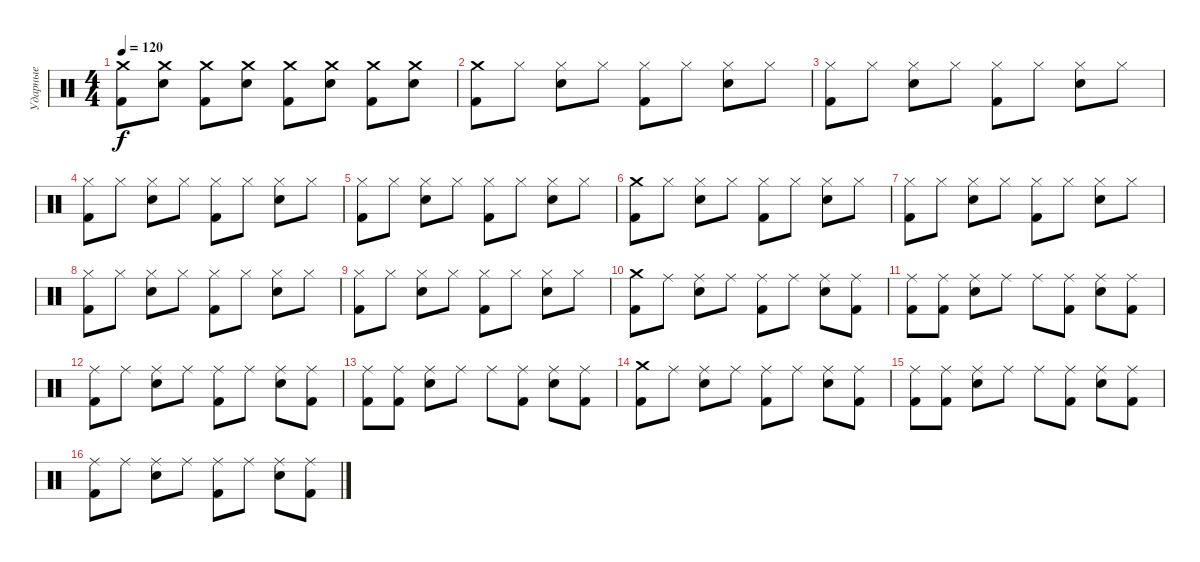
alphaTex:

\track ("Ударные" "Ударные") {instrument percussion}
\staff {score}
\articulation defaults
\ts (4 4)
\tempo 120
\clef neutral
\ks c
("Crash medium (hit)" "Kick (hit) 2").8{dy f} ("Crash medium (hit)" "Electric Snare (hit)").8 ("Crash medium (hit)" "Kick (hit) 2").8 ("Crash medium (hit)" "Electric Snare (hit)").8 ("Crash medium (hit)" "Kick (hit) 2").8 ("Crash medium (hit)" "Electric Snare (hit)").8 ("Crash medium (hit)" "Kick (hit) 2").8 ("Crash medium (hit)" "Electric Snare (hit)").8 |
("Crash medium (hit)" "Kick (hit) 2").8 "Hi-Hat (closed)".8 ("Hi-Hat (closed)" "Electric Snare (hit)").8 "Hi-Hat (closed)".8 ("Hi-Hat (closed)" "Kick (hit) 2").8 "Hi-Hat (closed)".8 ("Hi-Hat (closed)" "Electric Snare (hit)").8 "Hi-Hat (closed)".8 |
("Hi-Hat (closed)" "Kick (hit) 2").8 "Hi-Hat (closed)".8 ("Hi-Hat (closed)" "Electric Snare (hit)").8 "Hi-Hat (closed)".8 ("Hi-Hat (closed)" "Kick (hit) 2").8 "Hi-Hat (closed)".8 ("Hi-Hat (closed)" "Electric Snare (hit)").8 "Hi-Hat (closed)".8 |
("Hi-Hat (closed)" "Kick (hit) 2").8 "Hi-Hat (closed)".8 ("Hi-Hat (closed)" "Electric Snare (hit)").8 "Hi-Hat (closed)".8 ("Hi-Hat (closed)" "Kick (hit) 2").8 "Hi-Hat (closed)".8 ("Hi-Hat (closed)" "Electric Snare (hit)").8 "Hi-Hat (closed)".8 |
("Hi-Hat (closed)" "Kick (hit) 2").8 "Hi-Hat (closed)".8 ("Hi-Hat (closed)" "Electric Snare (hit)").8 "Hi-Hat (closed)".8 ("Hi-Hat (closed)" "Kick (hit) 2").8 "Hi-Hat (closed)".8 ("Hi-Hat (closed)" "Electric Snare (hit)").8 "Hi-Hat (closed)".8 |
("Crash medium (hit)" "Kick (hit) 2").8 "Hi-Hat (closed)".8 ("Hi-Hat (closed)" "Electric Snare (hit)").8 "Hi-Hat (closed)".8 ("Hi-Hat (closed)" "Kick (hit) 2").8 "Hi-Hat (closed)".8 ("Hi-Hat (closed)" "Electric Snare (hit)").8 "Hi-Hat (closed)".8 |
("Hi-Hat (closed)" "Kick (hit) 2").8 "Hi-Hat (closed)".8 ("Hi-Hat (closed)" "Electric Snare (hit)").8 "Hi-Hat (closed)".8 ("Hi-Hat (closed)" "Kick (hit) 2").8 "Hi-Hat (closed)".8 ("Hi-Hat (closed)" "Electric Snare (hit)").8 "Hi-Hat (closed)".8 |
("Hi-Hat (closed)" "Kick (hit) 2").8 "Hi-Hat (closed)".8 ("Hi-Hat (closed)" "Electric Snare (hit)").8 "Hi-Hat (closed)".8 ("Hi-Hat (closed)" "Kick (hit) 2").8 "Hi-Hat (closed)".8 ("Hi-Hat (closed)" "Electric Snare (hit)").8 "Hi-Hat (closed)".8 |
("Hi-Hat (closed)" "Kick (hit) 2").8 "Hi-Hat (closed)".8 ("Hi-Hat (closed)" "Electric Snare (hit)").8 "Hi-Hat (closed)".8 ("Hi-Hat (closed)" "Kick (hit) 2").8 "Hi-Hat (closed)".8 ("Hi-Hat (closed)" "Electric Snare (hit)").8 "Hi-Hat (closed)".8 |
("Crash medium (hit)" "Kick (hit) 2").8 "Ride (middle)".8 ("Ride (middle)" "Electric Snare (hit)").8 "Ride (middle)".8 ("Ride (middle)" "Kick (hit) 2").8 "Ride (middle)".8 ("Ride (middle)" "Electric Snare (hit)").8 ("Ride (middle)" "Kick (hit) 2").8 |
("Ride (middle)" "Kick (hit) 2").8 ("Ride (middle)" "Kick (hit) 2").8 ("Ride (middle)" "Electric Snare (hit)").8 "Ride (middle)".8 "Ride (middle)".8 ("Ride (middle)" "Kick (hit) 2").8 ("Ride (middle)" "Electric Snare (hit)").8 ("Ride (middle)" "Kick (hit) 2").8 |
("Ride (middle)" "Kick (hit) 2").8 "Ride (middle)".8 ("Ride (middle)" "Electric Snare (hit)").8 "Ride (middle)".8 ("Ride (middle)" "Kick (hit) 2").8 "Ride (middle)".8 ("Ride (middle)" "Electric Snare (hit)").8 ("Ride (middle)" "Kick (hit) 2").8 |
("Ride (middle)" "Kick (hit) 2").8 ("Ride (middle)" "Kick (hit) 2").8 ("Ride (middle)" "Electric Snare (hit)").8 "Ride (middle)".8 "Ride (middle)".8 ("Ride (middle)" "Kick (hit) 2").8 ("Ride (middle)" "Electric Snare (hit)").8 ("Ride (middle)" "Kick (hit) 2").8 |
("Crash medium (hit)" "Kick (hit) 2").8 "Ride (middle)".8 ("Ride (middle)" "Electric Snare (hit)").8 "Ride (middle)".8 ("Ride (middle)" "Kick (hit) 2").8 "Ride (middle)".8 ("Ride (middle)" "Electric Snare (hit)").8 ("Ride (middle)" "Kick (hit) 2").8 |
("Ride (middle)" "Kick (hit) 2").8 ("Ride (middle)" "Kick (hit) 2").8 ("Ride (middle)" "Electric Snare (hit)").8 "Ride (middle)".8 "Ride (middle)".8 ("Ride (middle)" "Kick (hit) 2").8 ("Ride (middle)" "Electric Snare (hit)").8 ("Ride (middle)" "Kick (hit) 2").8 |
("Ride (middle)" "Kick (hit) 2").8 "Ride (middle)".8 ("Ride (middle)" "Electric Snare (hit)").8 "Ride (middle)".8 ("Ride (middle)" "Kick (hit) 2").8 "Ride (middle)".8 ("Ride (middle)" "Electric Snare (hit)").8 ("Ride (middle)" "Kick (hit) 2").8
